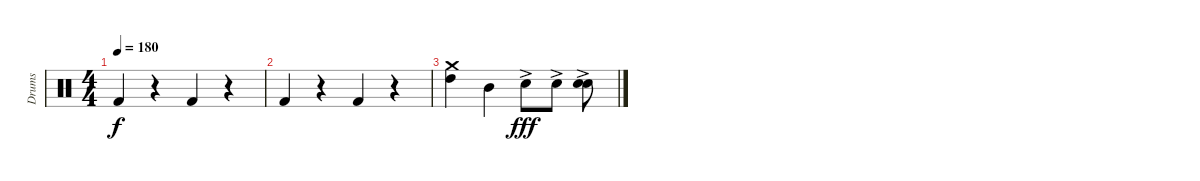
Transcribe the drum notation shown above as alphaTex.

\track ("Drums" "Drums") {instrument percussion}
\staff {score}
\articulation defaults
\ts (4 4)
\tempo 180
\clef neutral
\ks c "Kick (hit) 2".4{dy f}
r.4 "Kick (hit) 2".4 r.4 |
"Kick (hit) 2".4 r.4 "Kick (hit) 2".4 r.4 |
("Crash medium (hit)" "High Tom (hit)").4 "Mid Tom (hit)".4 "Snare (hit) 2"{ac}.8{dy fff} "Snare (hit) 2"{ac}.8 ("Snare (hit) 2"{ac} "Snare (hit) 2"{ac}).8{bd 120}
